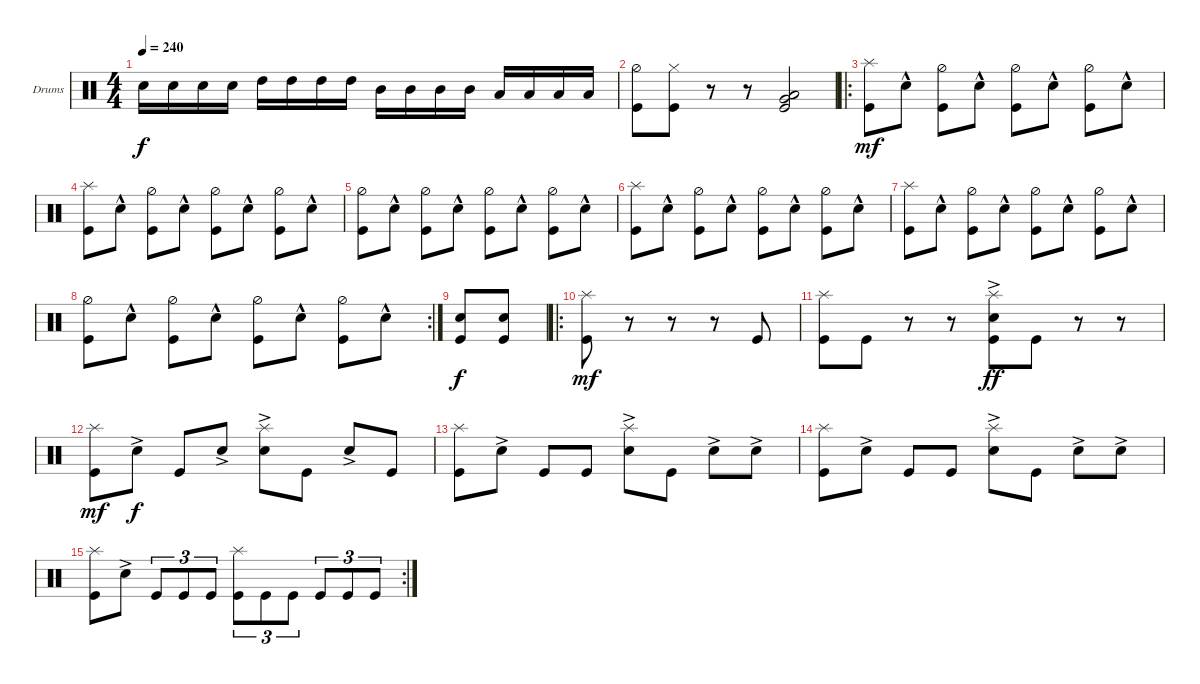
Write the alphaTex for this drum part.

\defaultSystemsLayout 4
\bracketExtendMode groupsimilarinstruments
\firstSystemTrackNameOrientation horizontal
\otherSystemsTrackNameOrientation horizontal
\track ("Drumkit" "Drums") {instrument percussion}
\staff {score}
\articulation defaults
\ts (4 4)
\tempo 240
\clef neutral
\ks c "Snare (hit) 2".16{dy f} "Snare (hit) 2".16 "Snare (hit) 2".16 "Snare (hit) 2".16 "High Tom (hit)".16 "High Tom (hit)".16 "High Tom (hit)".16 "High Tom (hit)".16 "Mid Tom (hit)".16 "Mid Tom (hit)".16 "Mid Tom (hit)".16 "Mid Tom (hit)".16 "Low Tom (hit)".16 "Low Tom (hit)".16 "Low Tom (hit)".16 "Low Tom (hit)".16
|
("Hi-Hat (half)" "Kick (hit)").8 ("Kick (hit)" "Hi-Hat (closed)").8 r.8 r.8 ("Kick (hit)" "Very Low Tom (hit)" "Low Tom (hit)").2 |
\ro
("Splash (hit)" "Kick (hit)").8{dy mf} "Snare (hit) 2"{hac}.8 ("Hi-Hat (half)" "Kick (hit)").8 "Snare (hit) 2"{hac}.8 ("Hi-Hat (half)" "Kick (hit)").8 "Snare (hit) 2"{hac}.8 ("Kick (hit)" "Hi-Hat (half)").8 "Snare (hit) 2"{hac}.8 |
("Splash (hit)" "Kick (hit)").8 "Snare (hit) 2"{hac}.8 ("Hi-Hat (half)" "Kick (hit)").8 "Snare (hit) 2"{hac}.8 ("Hi-Hat (half)" "Kick (hit)").8 "Snare (hit) 2"{hac}.8 ("Kick (hit)" "Hi-Hat (half)").8 "Snare (hit) 2"{hac}.8 |
("Kick (hit)" "Hi-Hat (half)").8 "Snare (hit) 2"{hac}.8 ("Hi-Hat (half)" "Kick (hit)").8 "Snare (hit) 2"{hac}.8 ("Hi-Hat (half)" "Kick (hit)").8 "Snare (hit) 2"{hac}.8 ("Kick (hit)" "Hi-Hat (half)").8 "Snare (hit) 2"{hac}.8 |
("Splash (hit)" "Kick (hit)").8 "Snare (hit) 2"{hac}.8 ("Hi-Hat (half)" "Kick (hit)").8 "Snare (hit) 2"{hac}.8 ("Hi-Hat (half)" "Kick (hit)").8 "Snare (hit) 2"{hac}.8 ("Kick (hit)" "Hi-Hat (half)").8 "Snare (hit) 2"{hac}.8 |
("Splash (hit)" "Kick (hit)").8 "Snare (hit) 2"{hac}.8 ("Hi-Hat (half)" "Kick (hit)").8 "Snare (hit) 2"{hac}.8 ("Hi-Hat (half)" "Kick (hit)").8 "Snare (hit) 2"{hac}.8 ("Kick (hit)" "Hi-Hat (half)").8 "Snare (hit) 2"{hac}.8 |
\rc 2
("Kick (hit)" "Hi-Hat (half)").8 "Snare (hit) 2"{hac}.8 ("Hi-Hat (half)" "Kick (hit)").8 "Snare (hit) 2"{hac}.8 ("Hi-Hat (half)" "Kick (hit)").8 "Snare (hit) 2"{hac}.8 ("Kick (hit)" "Hi-Hat (half)").8 "Snare (hit) 2"{hac}.8 |
("Snare (hit) 2" "Kick (hit)").8{dy f} ("Snare (hit) 2" "Kick (hit)").8 |
\ro
("Kick (hit)" "Splash (hit)").8{dy mf} r.8 r.8 r.8 "Kick (hit)".8 |
("Kick (hit)" "Splash (hit)").8 "Kick (hit)".8 r.8 r.8 ("Kick (hit)" "Splash (hit)" "Snare (hit) 2"{ac}).8{dy ff} "Kick (hit)".8 r.8 r.8 |
("Kick (hit)" "Splash (hit)").8{dy mf} "Snare (hit) 2"{ac}.8{dy f} "Kick (hit)".8 "Snare (hit) 2"{ac}.8 ("Splash (hit)" "Snare (hit) 2"{ac}).8 "Kick (hit)".8 "Snare (hit) 2"{ac}.8 "Kick (hit)".8 |
("Kick (hit)" "Splash (hit)").8 "Snare (hit) 2"{ac}.8 "Kick (hit)".8 "Kick (hit)".8 ("Splash (hit)" "Snare (hit) 2"{ac}).8 "Kick (hit)".8 "Snare (hit) 2"{ac}.8 "Snare (hit) 2"{ac}.8 |
("Kick (hit)" "Splash (hit)").8 "Snare (hit) 2"{ac}.8 "Kick (hit)".8 "Kick (hit)".8 ("Splash (hit)" "Snare (hit) 2"{ac}).8 "Kick (hit)".8 "Snare (hit) 2"{ac}.8 "Snare (hit) 2"{ac}.8 |
\rc 2
("Kick (hit)" "Splash (hit)").8 "Snare (hit) 2"{ac}.8 "Kick (hit)".8{tu (3 2)} "Kick (hit)".8{tu (3 2)} "Kick (hit)".8{tu (3 2)} ("Kick (hit)" "Splash (hit)").8{tu (3 2)} "Kick (hit)".8{tu (3 2)} "Kick (hit)".8{tu (3 2)} "Kick (hit)".8{tu (3 2)} "Kick (hit)".8{tu (3 2)} "Kick (hit)".8{tu (3 2)}
